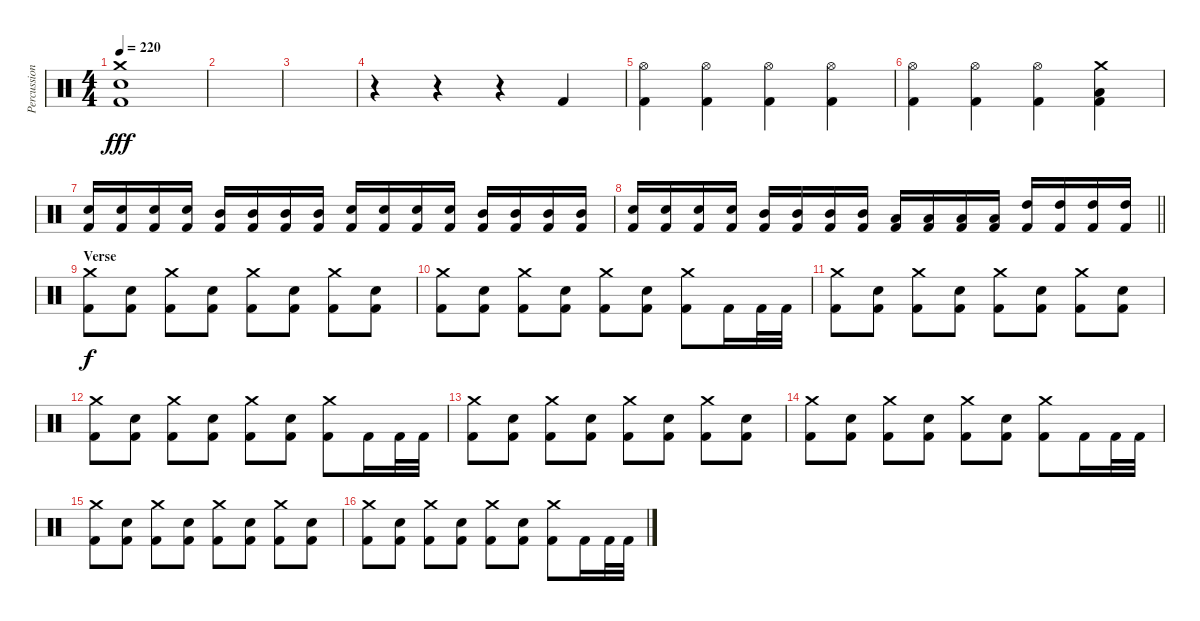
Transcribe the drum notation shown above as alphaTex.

\track ("Percussion" "Percussion") {instrument percussion}
\staff {score}
\articulation defaults
\ts (4 4)
\tempo 220
\clef neutral
\ks c
("Crash medium (hit)" "Electric Snare (hit)" "Kick (hit) 2").1{dy fff} |
|
|
r.4 r.4 r.4 "Kick (hit) 2".4 |
("Hi-Hat (open)" "Kick (hit) 2").4 ("Hi-Hat (open)" "Kick (hit) 2").4 ("Hi-Hat (open)" "Kick (hit) 2").4 ("Hi-Hat (open)" "Kick (hit) 2").4 |
("Hi-Hat (open)" "Kick (hit) 2").4 ("Hi-Hat (open)" "Kick (hit) 2").4 ("Hi-Hat (open)" "Kick (hit) 2").4 ("Crash medium (hit)" "Low Floor Tom (hit)" "Kick (hit) 2").4 |
("Electric Snare (hit)" "Kick (hit) 2").16 ("Electric Snare (hit)" "Kick (hit) 2").16 ("Electric Snare (hit)" "Kick (hit) 2").16 ("Electric Snare (hit)" "Kick (hit) 2").16 ("Mid Tom (hit)" "Kick (hit) 2").16 ("Mid Tom (hit)" "Kick (hit) 2").16 ("Mid Tom (hit)" "Kick (hit) 2").16 ("Mid Tom (hit)" "Kick (hit) 2").16 ("Electric Snare (hit)" "Kick (hit) 2").16 ("Electric Snare (hit)" "Kick (hit) 2").16 ("Electric Snare (hit)" "Kick (hit) 2").16 ("Electric Snare (hit)" "Kick (hit) 2").16 ("Mid Tom (hit)" "Kick (hit) 2").16 ("Mid Tom (hit)" "Kick (hit) 2").16 ("Mid Tom (hit)" "Kick (hit) 2").16 ("Mid Tom (hit)" "Kick (hit) 2").16 |
\barLineRight lightlight
("Electric Snare (hit)" "Kick (hit) 2").16 ("Electric Snare (hit)" "Kick (hit) 2").16 ("Electric Snare (hit)" "Kick (hit) 2").16 ("Electric Snare (hit)" "Kick (hit) 2").16 ("Mid Tom (hit)" "Kick (hit) 2").16 ("Mid Tom (hit)" "Kick (hit) 2").16 ("Mid Tom (hit)" "Kick (hit) 2").16 ("Mid Tom (hit)" "Kick (hit) 2").16 ("Low Tom (hit)" "Kick (hit) 2").16 ("Low Tom (hit)" "Kick (hit) 2").16 ("Low Tom (hit)" "Kick (hit) 2").16 ("Low Tom (hit)" "Kick (hit) 2").16 ("High Tom (hit)" "Kick (hit) 2").16 ("High Tom (hit)" "Kick (hit) 2").16 ("High Tom (hit)" "Kick (hit) 2").16 ("High Tom (hit)" "Kick (hit) 2").16 |
\section ("" "Verse")
("Crash medium (hit)" "Kick (hit) 2").8{dy f} ("Electric Snare (hit)" "Kick (hit) 2").8 ("Crash medium (hit)" "Kick (hit) 2").8 ("Electric Snare (hit)" "Kick (hit) 2").8 ("Crash medium (hit)" "Kick (hit) 2").8 ("Electric Snare (hit)" "Kick (hit) 2").8 ("Crash medium (hit)" "Kick (hit) 2").8 ("Electric Snare (hit)" "Kick (hit) 2").8 |
("Crash medium (hit)" "Kick (hit) 2").8 ("Electric Snare (hit)" "Kick (hit) 2").8 ("Crash medium (hit)" "Kick (hit) 2").8 ("Electric Snare (hit)" "Kick (hit) 2").8 ("Crash medium (hit)" "Kick (hit) 2").8 ("Electric Snare (hit)" "Kick (hit) 2").8 ("Crash medium (hit)" "Kick (hit) 2").8 "Kick (hit) 2".16 "Kick (hit) 2".32 "Kick (hit) 2".32 |
("Crash medium (hit)" "Kick (hit) 2").8 ("Electric Snare (hit)" "Kick (hit) 2").8 ("Crash medium (hit)" "Kick (hit) 2").8 ("Electric Snare (hit)" "Kick (hit) 2").8 ("Crash medium (hit)" "Kick (hit) 2").8 ("Electric Snare (hit)" "Kick (hit) 2").8 ("Crash medium (hit)" "Kick (hit) 2").8 ("Electric Snare (hit)" "Kick (hit) 2").8 |
("Crash medium (hit)" "Kick (hit) 2").8 ("Electric Snare (hit)" "Kick (hit) 2").8 ("Crash medium (hit)" "Kick (hit) 2").8 ("Electric Snare (hit)" "Kick (hit) 2").8 ("Crash medium (hit)" "Kick (hit) 2").8 ("Electric Snare (hit)" "Kick (hit) 2").8 ("Crash medium (hit)" "Kick (hit) 2").8 "Kick (hit) 2".16 "Kick (hit) 2".32 "Kick (hit) 2".32 |
("Crash medium (hit)" "Kick (hit) 2").8 ("Electric Snare (hit)" "Kick (hit) 2").8 ("Crash medium (hit)" "Kick (hit) 2").8 ("Electric Snare (hit)" "Kick (hit) 2").8 ("Crash medium (hit)" "Kick (hit) 2").8 ("Electric Snare (hit)" "Kick (hit) 2").8 ("Crash medium (hit)" "Kick (hit) 2").8 ("Electric Snare (hit)" "Kick (hit) 2").8 |
("Crash medium (hit)" "Kick (hit) 2").8 ("Electric Snare (hit)" "Kick (hit) 2").8 ("Crash medium (hit)" "Kick (hit) 2").8 ("Electric Snare (hit)" "Kick (hit) 2").8 ("Crash medium (hit)" "Kick (hit) 2").8 ("Electric Snare (hit)" "Kick (hit) 2").8 ("Crash medium (hit)" "Kick (hit) 2").8 "Kick (hit) 2".16 "Kick (hit) 2".32 "Kick (hit) 2".32 |
("Crash medium (hit)" "Kick (hit) 2").8 ("Electric Snare (hit)" "Kick (hit) 2").8 ("Crash medium (hit)" "Kick (hit) 2").8 ("Electric Snare (hit)" "Kick (hit) 2").8 ("Crash medium (hit)" "Kick (hit) 2").8 ("Electric Snare (hit)" "Kick (hit) 2").8 ("Crash medium (hit)" "Kick (hit) 2").8 ("Electric Snare (hit)" "Kick (hit) 2").8 |
("Crash medium (hit)" "Kick (hit) 2").8 ("Electric Snare (hit)" "Kick (hit) 2").8 ("Crash medium (hit)" "Kick (hit) 2").8 ("Electric Snare (hit)" "Kick (hit) 2").8 ("Crash medium (hit)" "Kick (hit) 2").8 ("Electric Snare (hit)" "Kick (hit) 2").8 ("Crash medium (hit)" "Kick (hit) 2").8 "Kick (hit) 2".16 "Kick (hit) 2".32 "Kick (hit) 2".32
